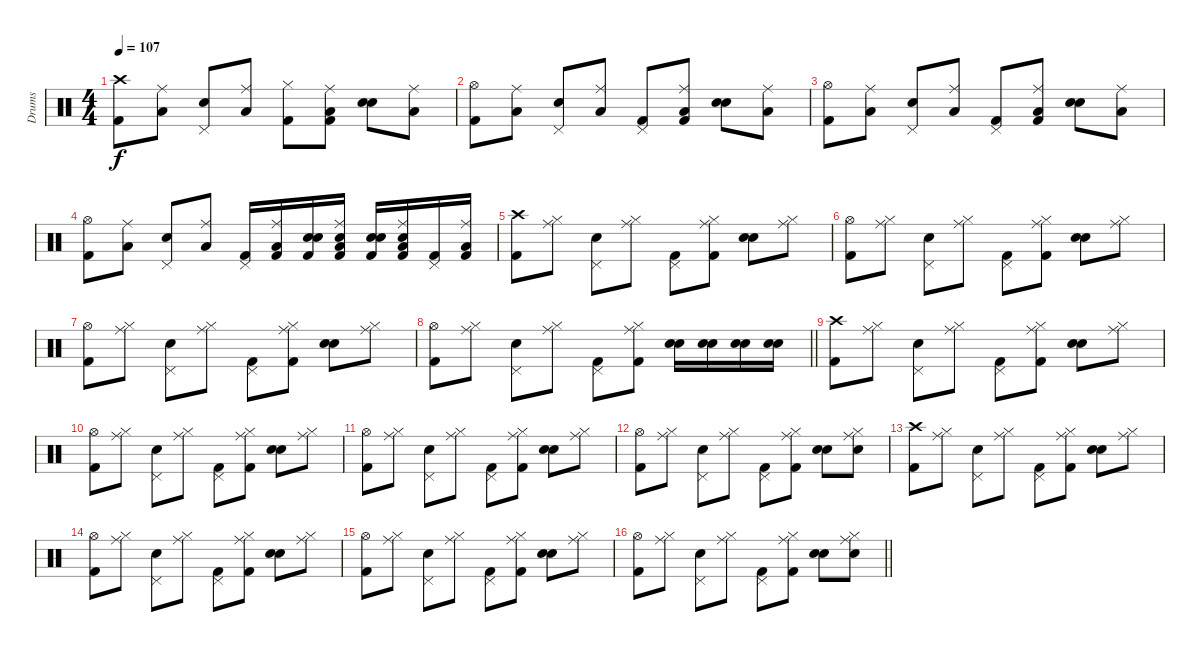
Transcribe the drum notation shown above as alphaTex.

\track ("Drums" "Drums") {instrument percussion}
\staff {score}
\articulation defaults
\ts (4 4)
\tempo 107
\clef neutral
\ks c
("Crash high (hit)" "Kick (hit) 2").8{dy f} ("Ride (middle)" "Low Tom (hit)").8 ("Pedal Hi-Hat (hit)" "Electric Snare (hit)").8 ("Ride (middle)" "Low Tom (hit)").8 ("Hi-Hat (closed)" "Kick (hit) 2").8 ("Ride (middle)" "Low Tom (hit)" "Kick (hit) 2").8 ("Snare (hit) 2" "Electric Snare (hit)").8 ("Ride (middle)" "Low Tom (hit)").8 |
("Hi-Hat (open)" "Kick (hit) 2").8 ("Ride (middle)" "Low Tom (hit)").8 ("Pedal Hi-Hat (hit)" "Electric Snare (hit)").8 ("Ride (middle)" "Low Tom (hit)").8 ("Pedal Hi-Hat (hit)" "Kick (hit) 2").8 ("Ride (middle)" "Low Tom (hit)" "Kick (hit) 2").8 ("Snare (hit) 2" "Electric Snare (hit)").8 ("Ride (middle)" "Low Tom (hit)").8 |
("Hi-Hat (open)" "Kick (hit) 2").8 ("Ride (middle)" "Low Tom (hit)").8 ("Pedal Hi-Hat (hit)" "Electric Snare (hit)").8 ("Ride (middle)" "Low Tom (hit)").8 ("Pedal Hi-Hat (hit)" "Kick (hit) 2").8 ("Ride (middle)" "Low Tom (hit)" "Kick (hit) 2").8 ("Snare (hit) 2" "Electric Snare (hit)").8 ("Ride (middle)" "Low Tom (hit)").8 |
("Hi-Hat (open)" "Kick (hit) 2").8 ("Ride (middle)" "Low Tom (hit)").8 ("Pedal Hi-Hat (hit)" "Electric Snare (hit)").8 ("Ride (middle)" "Low Tom (hit)").8 ("Pedal Hi-Hat (hit)" "Kick (hit) 2").16 ("Ride (middle)" "Low Tom (hit)" "Kick (hit) 2").16 ("Snare (hit) 2" "Electric Snare (hit)" "Kick (hit) 2").16 ("Ride (middle)" "Low Tom (hit)" "Electric Snare (hit)" "Kick (hit) 2").16 ("Snare (hit) 2" "Electric Snare (hit)" "Kick (hit) 2").16 ("Ride (middle)" "Low Tom (hit)" "Electric Snare (hit)" "Kick (hit) 2").16 ("Pedal Hi-Hat (hit)" "Kick (hit) 2").16 ("Ride (middle)" "Low Tom (hit)" "Kick (hit) 2").16 |
("Crash high (hit)" "Kick (hit) 2").8 ("Ride (middle)" "Hi-Hat (closed)").8 ("Pedal Hi-Hat (hit)" "Electric Snare (hit)").8 ("Ride (middle)" "Hi-Hat (closed)").8 ("Pedal Hi-Hat (hit)" "Kick (hit) 2").8 ("Ride (middle)" "Hi-Hat (closed)" "Kick (hit) 2").8 ("Snare (hit) 2" "Electric Snare (hit)").8 ("Ride (middle)" "Hi-Hat (closed)").8 |
("Hi-Hat (open)" "Kick (hit) 2").8 ("Ride (middle)" "Hi-Hat (closed)").8 ("Pedal Hi-Hat (hit)" "Electric Snare (hit)").8 ("Ride (middle)" "Hi-Hat (closed)").8 ("Pedal Hi-Hat (hit)" "Kick (hit) 2").8 ("Ride (middle)" "Hi-Hat (closed)" "Kick (hit) 2").8 ("Snare (hit) 2" "Electric Snare (hit)").8 ("Ride (middle)" "Hi-Hat (closed)").8 |
("Hi-Hat (open)" "Kick (hit) 2").8 ("Ride (middle)" "Hi-Hat (closed)").8 ("Pedal Hi-Hat (hit)" "Electric Snare (hit)").8 ("Ride (middle)" "Hi-Hat (closed)").8 ("Pedal Hi-Hat (hit)" "Kick (hit) 2").8 ("Ride (middle)" "Hi-Hat (closed)" "Kick (hit) 2").8 ("Snare (hit) 2" "Electric Snare (hit)").8 ("Ride (middle)" "Hi-Hat (closed)").8 |
\barLineRight lightlight
("Hi-Hat (open)" "Kick (hit) 2").8 ("Ride (middle)" "Hi-Hat (closed)").8 ("Pedal Hi-Hat (hit)" "Electric Snare (hit)").8 ("Ride (middle)" "Hi-Hat (closed)").8 ("Pedal Hi-Hat (hit)" "Kick (hit) 2").8 ("Ride (middle)" "Hi-Hat (closed)" "Kick (hit) 2").8 ("Snare (hit) 2" "Electric Snare (hit)").16 ("Snare (hit) 2" "Electric Snare (hit)").16 ("Snare (hit) 2" "Electric Snare (hit)").16 ("Snare (hit) 2" "Electric Snare (hit)").16 |
("Crash high (hit)" "Kick (hit) 2").8 ("Ride (middle)" "Hi-Hat (closed)").8 ("Pedal Hi-Hat (hit)" "Electric Snare (hit)").8 ("Ride (middle)" "Hi-Hat (closed)").8 ("Pedal Hi-Hat (hit)" "Kick (hit) 2").8 ("Ride (middle)" "Hi-Hat (closed)" "Kick (hit) 2").8 ("Snare (hit) 2" "Electric Snare (hit)").8 ("Ride (middle)" "Hi-Hat (closed)").8 |
("Hi-Hat (open)" "Kick (hit) 2").8 ("Ride (middle)" "Hi-Hat (closed)").8 ("Pedal Hi-Hat (hit)" "Electric Snare (hit)").8 ("Ride (middle)" "Hi-Hat (closed)").8 ("Pedal Hi-Hat (hit)" "Kick (hit) 2").8 ("Ride (middle)" "Hi-Hat (closed)" "Kick (hit) 2").8 ("Snare (hit) 2" "Electric Snare (hit)").8 ("Ride (middle)" "Hi-Hat (closed)").8 |
("Hi-Hat (open)" "Kick (hit) 2").8 ("Ride (middle)" "Hi-Hat (closed)").8 ("Pedal Hi-Hat (hit)" "Electric Snare (hit)").8 ("Ride (middle)" "Hi-Hat (closed)").8 ("Pedal Hi-Hat (hit)" "Kick (hit) 2").8 ("Ride (middle)" "Hi-Hat (closed)" "Kick (hit) 2").8 ("Snare (hit) 2" "Electric Snare (hit)").8 ("Ride (middle)" "Hi-Hat (closed)").8 |
("Hi-Hat (open)" "Kick (hit) 2").8 ("Ride (middle)" "Hi-Hat (closed)").8 ("Pedal Hi-Hat (hit)" "Electric Snare (hit)").8 ("Ride (middle)" "Hi-Hat (closed)").8 ("Pedal Hi-Hat (hit)" "Kick (hit) 2").8 ("Ride (middle)" "Hi-Hat (closed)" "Kick (hit) 2").8 ("Snare (hit) 2" "Electric Snare (hit)").8 ("Ride (middle)" "Hi-Hat (closed)" "Electric Snare (hit)").8 |
("Crash high (hit)" "Kick (hit) 2").8 ("Ride (middle)" "Hi-Hat (closed)").8 ("Pedal Hi-Hat (hit)" "Electric Snare (hit)").8 ("Ride (middle)" "Hi-Hat (closed)").8 ("Pedal Hi-Hat (hit)" "Kick (hit) 2").8 ("Ride (middle)" "Hi-Hat (closed)" "Kick (hit) 2").8 ("Snare (hit) 2" "Electric Snare (hit)").8 ("Ride (middle)" "Hi-Hat (closed)").8 |
("Hi-Hat (open)" "Kick (hit) 2").8 ("Ride (middle)" "Hi-Hat (closed)").8 ("Pedal Hi-Hat (hit)" "Electric Snare (hit)").8 ("Ride (middle)" "Hi-Hat (closed)").8 ("Pedal Hi-Hat (hit)" "Kick (hit) 2").8 ("Ride (middle)" "Hi-Hat (closed)" "Kick (hit) 2").8 ("Snare (hit) 2" "Electric Snare (hit)").8 ("Ride (middle)" "Hi-Hat (closed)").8 |
("Hi-Hat (open)" "Kick (hit) 2").8 ("Ride (middle)" "Hi-Hat (closed)").8 ("Pedal Hi-Hat (hit)" "Electric Snare (hit)").8 ("Ride (middle)" "Hi-Hat (closed)").8 ("Pedal Hi-Hat (hit)" "Kick (hit) 2").8 ("Ride (middle)" "Hi-Hat (closed)" "Kick (hit) 2").8 ("Snare (hit) 2" "Electric Snare (hit)").8 ("Ride (middle)" "Hi-Hat (closed)").8 |
\barLineRight lightlight
("Hi-Hat (open)" "Kick (hit) 2").8 ("Ride (middle)" "Hi-Hat (closed)").8 ("Pedal Hi-Hat (hit)" "Electric Snare (hit)").8 ("Ride (middle)" "Hi-Hat (closed)").8 ("Pedal Hi-Hat (hit)" "Kick (hit) 2").8 ("Ride (middle)" "Hi-Hat (closed)" "Kick (hit) 2").8 ("Snare (hit) 2" "Electric Snare (hit)").8 ("Ride (middle)" "Hi-Hat (closed)" "Electric Snare (hit)").8
